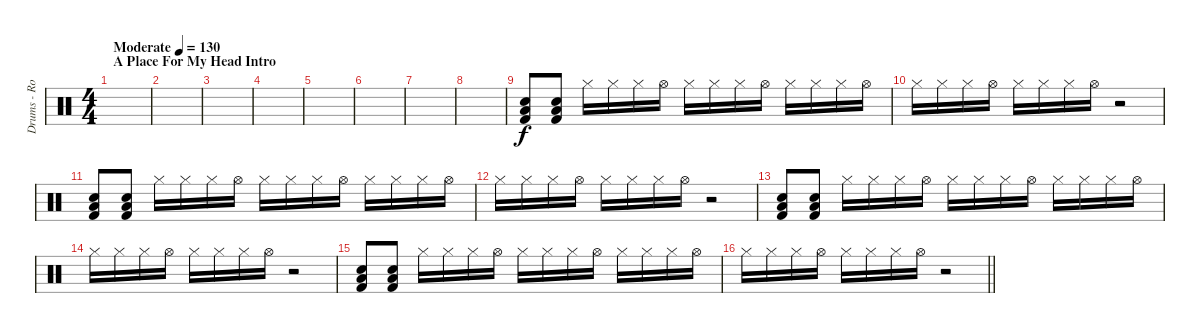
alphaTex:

\track ("Drums - Rob Bourdon" "Drums - Ro") {instrument percussion}
\staff {score}
\articulation defaults
\ts (4 4)
\section ("" "A Place For My Head Intro")
\tempo (130 "Moderate")
\clef neutral
\ks c
|
|
|
|
|
|
|
|
("Snare (hit) 2" "Low Tom (hit)" "Kick (hit) 2").8 ("Snare (hit) 2" "Low Tom (hit)" "Kick (hit) 2").8 "Hi-Hat (closed)".16 "Hi-Hat (closed)".16 "Hi-Hat (closed)".16 "Hi-Hat (open)".16 "Hi-Hat (closed)".16 "Hi-Hat (closed)".16 "Hi-Hat (closed)".16 "Hi-Hat (open)".16 "Hi-Hat (closed)".16 "Hi-Hat (closed)".16 "Hi-Hat (closed)".16 "Hi-Hat (open)".16 |
"Hi-Hat (closed)".16 "Hi-Hat (closed)".16 "Hi-Hat (closed)".16 "Hi-Hat (open)".16 "Hi-Hat (closed)".16 "Hi-Hat (closed)".16 "Hi-Hat (closed)".16 "Hi-Hat (open)".16 r.2 |
("Snare (hit) 2" "Low Tom (hit)" "Kick (hit) 2").8 ("Snare (hit) 2" "Low Tom (hit)" "Kick (hit) 2").8 "Hi-Hat (closed)".16 "Hi-Hat (closed)".16 "Hi-Hat (closed)".16 "Hi-Hat (open)".16 "Hi-Hat (closed)".16 "Hi-Hat (closed)".16 "Hi-Hat (closed)".16 "Hi-Hat (open)".16 "Hi-Hat (closed)".16 "Hi-Hat (closed)".16 "Hi-Hat (closed)".16 "Hi-Hat (open)".16 |
"Hi-Hat (closed)".16 "Hi-Hat (closed)".16 "Hi-Hat (closed)".16 "Hi-Hat (open)".16 "Hi-Hat (closed)".16 "Hi-Hat (closed)".16 "Hi-Hat (closed)".16 "Hi-Hat (open)".16 r.2 |
("Snare (hit) 2" "Low Tom (hit)" "Kick (hit) 2").8 ("Snare (hit) 2" "Low Tom (hit)" "Kick (hit) 2").8 "Hi-Hat (closed)".16 "Hi-Hat (closed)".16 "Hi-Hat (closed)".16 "Hi-Hat (open)".16 "Hi-Hat (closed)".16 "Hi-Hat (closed)".16 "Hi-Hat (closed)".16 "Hi-Hat (open)".16 "Hi-Hat (closed)".16 "Hi-Hat (closed)".16 "Hi-Hat (closed)".16 "Hi-Hat (open)".16 |
"Hi-Hat (closed)".16 "Hi-Hat (closed)".16 "Hi-Hat (closed)".16 "Hi-Hat (open)".16 "Hi-Hat (closed)".16 "Hi-Hat (closed)".16 "Hi-Hat (closed)".16 "Hi-Hat (open)".16 r.2 |
("Snare (hit) 2" "Low Tom (hit)" "Kick (hit) 2").8 ("Snare (hit) 2" "Low Tom (hit)" "Kick (hit) 2").8 "Hi-Hat (closed)".16 "Hi-Hat (closed)".16 "Hi-Hat (closed)".16 "Hi-Hat (open)".16 "Hi-Hat (closed)".16 "Hi-Hat (closed)".16 "Hi-Hat (closed)".16 "Hi-Hat (open)".16 "Hi-Hat (closed)".16 "Hi-Hat (closed)".16 "Hi-Hat (closed)".16 "Hi-Hat (open)".16 |
\barLineRight lightlight "Hi-Hat (closed)".16 "Hi-Hat (closed)".16 "Hi-Hat (closed)".16 "Hi-Hat (open)".16 "Hi-Hat (closed)".16 "Hi-Hat (closed)".16 "Hi-Hat (closed)".16 "Hi-Hat (open)".16
r.2
